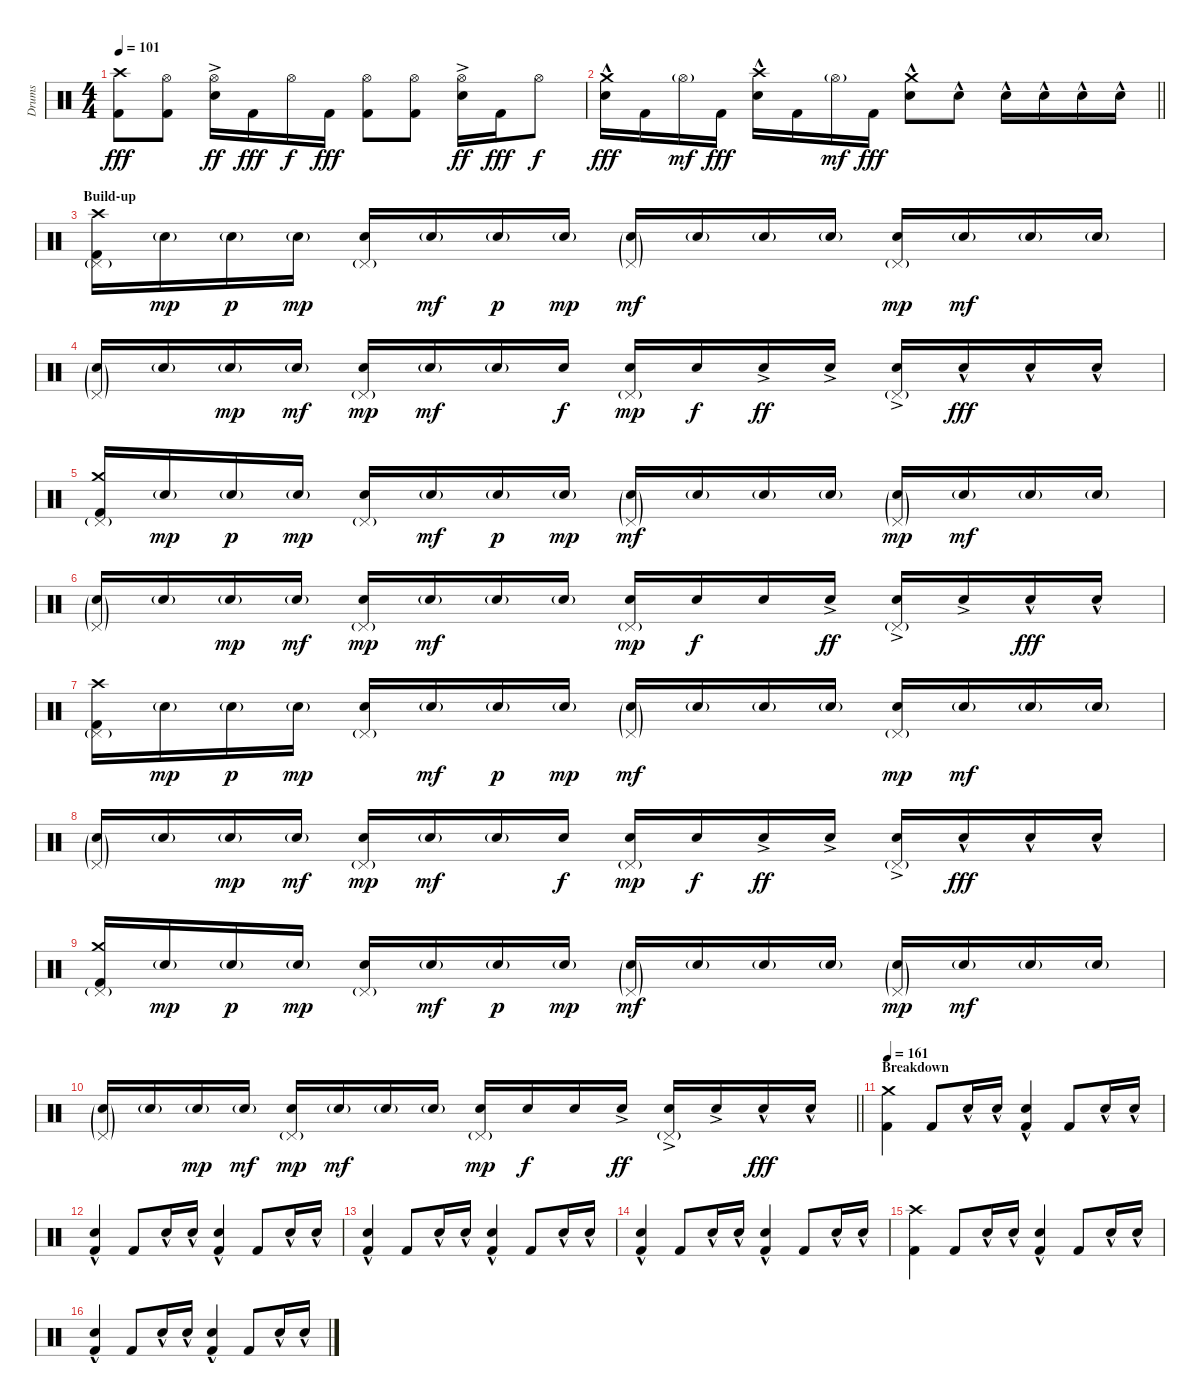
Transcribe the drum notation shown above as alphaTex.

\track ("Drums" "Drums") {instrument percussion}
\staff {score}
\articulation defaults
\ts (4 4)
\tempo 101
\clef neutral
\ks c
("Crash high (hit)" "Kick (hit) 2").8{dy fff} ("Hi-Hat (open)" "Kick (hit) 2").8 ("Hi-Hat (open)" "Snare (hit) 2"{ac}).16{dy ff} "Kick (hit) 2".16{dy fff} "Hi-Hat (open)".16{dy f} "Kick (hit) 2".16{dy fff} ("Hi-Hat (open)" "Kick (hit) 2").8 ("Hi-Hat (open)" "Kick (hit) 2").8 ("Hi-Hat (open)" "Snare (hit) 2"{ac}).16{dy ff} "Kick (hit) 2".16{dy fff} "Hi-Hat (open)".8{dy f} |
\barLineRight lightlight
("Crash medium (hit)" "Snare (hit) 2"{hac}).16{dy fff} "Kick (hit) 2".16 "Hi-Hat (open)"{g}.16{dy mf} "Kick (hit) 2".16{dy fff} ("Crash high (hit)" "Snare (hit) 2"{hac}).16 "Kick (hit) 2".16 "Hi-Hat (open)"{g}.16{dy mf} "Kick (hit) 2".16{dy fff} ("Crash medium (hit)" "Snare (hit) 2"{hac}).8 "Snare (hit) 2"{hac}.8 "Snare (hit) 2"{hac}.16 "Snare (hit) 2"{hac}.16 "Snare (hit) 2"{hac}.16 "Snare (hit) 2"{hac}.16 |
\section ("" "Build-up")
("Crash high (hit)" "Pedal Hi-Hat (hit)"{g} "Kick (hit) 2").16 "Snare (hit) 2"{g}.16{dy mp} "Snare (hit) 2"{g}.16{dy p} "Snare (hit) 2"{g}.16{dy mp} ("Pedal Hi-Hat (hit)"{g} "Snare (hit) 2").16 "Snare (hit) 2"{g}.16{dy mf} "Snare (hit) 2"{g}.16{dy p} "Snare (hit) 2"{g}.16{dy mp} ("Pedal Hi-Hat (hit)"{g} "Snare (hit) 2"{g}).16{dy mf} "Snare (hit) 2"{g}.16 "Snare (hit) 2"{g}.16 "Snare (hit) 2"{g}.16 ("Pedal Hi-Hat (hit)"{g} "Snare (hit) 2").16{dy mp} "Snare (hit) 2"{g}.16{dy mf} "Snare (hit) 2"{g}.16 "Snare (hit) 2"{g}.16 |
("Pedal Hi-Hat (hit)"{g} "Snare (hit) 2"{g}).16 "Snare (hit) 2"{g}.16 "Snare (hit) 2"{g}.16{dy mp} "Snare (hit) 2"{g}.16{dy mf} ("Pedal Hi-Hat (hit)"{g} "Snare (hit) 2").16{dy mp} "Snare (hit) 2"{g}.16{dy mf} "Snare (hit) 2"{g}.16 "Snare (hit) 2".16{dy f} ("Pedal Hi-Hat (hit)"{g} "Snare (hit) 2").16{dy mp} "Snare (hit) 2".16{dy f} "Snare (hit) 2"{ac}.16{dy ff} "Snare (hit) 2"{ac}.16 ("Pedal Hi-Hat (hit)"{g} "Snare (hit) 2"{ac}).16 "Snare (hit) 2"{hac}.16{dy fff} "Snare (hit) 2"{hac}.16 "Snare (hit) 2"{hac}.16 |
("Crash medium (hit)" "Pedal Hi-Hat (hit)"{g} "Kick (hit) 2").16 "Snare (hit) 2"{g}.16{dy mp} "Snare (hit) 2"{g}.16{dy p} "Snare (hit) 2"{g}.16{dy mp} ("Pedal Hi-Hat (hit)"{g} "Snare (hit) 2").16 "Snare (hit) 2"{g}.16{dy mf} "Snare (hit) 2"{g}.16{dy p} "Snare (hit) 2"{g}.16{dy mp} ("Pedal Hi-Hat (hit)"{g} "Snare (hit) 2"{g}).16{dy mf} "Snare (hit) 2"{g}.16 "Snare (hit) 2"{g}.16 "Snare (hit) 2"{g}.16 ("Pedal Hi-Hat (hit)"{g} "Snare (hit) 2"{g}).16{dy mp} "Snare (hit) 2"{g}.16{dy mf} "Snare (hit) 2"{g}.16 "Snare (hit) 2"{g}.16 |
("Pedal Hi-Hat (hit)"{g} "Snare (hit) 2"{g}).16 "Snare (hit) 2"{g}.16 "Snare (hit) 2"{g}.16{dy mp} "Snare (hit) 2"{g}.16{dy mf} ("Pedal Hi-Hat (hit)"{g} "Snare (hit) 2").16{dy mp} "Snare (hit) 2"{g}.16{dy mf} "Snare (hit) 2"{g}.16 "Snare (hit) 2"{g}.16 ("Pedal Hi-Hat (hit)"{g} "Snare (hit) 2").16{dy mp} "Snare (hit) 2".16{dy f} "Snare (hit) 2".16 "Snare (hit) 2"{ac}.16{dy ff} ("Pedal Hi-Hat (hit)"{g} "Snare (hit) 2"{ac}).16 "Snare (hit) 2"{ac}.16 "Snare (hit) 2"{hac}.16{dy fff} "Snare (hit) 2"{hac}.16 |
("Crash high (hit)" "Pedal Hi-Hat (hit)"{g} "Kick (hit) 2").16 "Snare (hit) 2"{g}.16{dy mp} "Snare (hit) 2"{g}.16{dy p} "Snare (hit) 2"{g}.16{dy mp} ("Pedal Hi-Hat (hit)"{g} "Snare (hit) 2").16 "Snare (hit) 2"{g}.16{dy mf} "Snare (hit) 2"{g}.16{dy p} "Snare (hit) 2"{g}.16{dy mp} ("Pedal Hi-Hat (hit)"{g} "Snare (hit) 2"{g}).16{dy mf} "Snare (hit) 2"{g}.16 "Snare (hit) 2"{g}.16 "Snare (hit) 2"{g}.16 ("Pedal Hi-Hat (hit)"{g} "Snare (hit) 2").16{dy mp} "Snare (hit) 2"{g}.16{dy mf} "Snare (hit) 2"{g}.16 "Snare (hit) 2"{g}.16 |
("Pedal Hi-Hat (hit)"{g} "Snare (hit) 2"{g}).16 "Snare (hit) 2"{g}.16 "Snare (hit) 2"{g}.16{dy mp} "Snare (hit) 2"{g}.16{dy mf} ("Pedal Hi-Hat (hit)"{g} "Snare (hit) 2").16{dy mp} "Snare (hit) 2"{g}.16{dy mf} "Snare (hit) 2"{g}.16 "Snare (hit) 2".16{dy f} ("Pedal Hi-Hat (hit)"{g} "Snare (hit) 2").16{dy mp} "Snare (hit) 2".16{dy f} "Snare (hit) 2"{ac}.16{dy ff} "Snare (hit) 2"{ac}.16 ("Pedal Hi-Hat (hit)"{g} "Snare (hit) 2"{ac}).16 "Snare (hit) 2"{hac}.16{dy fff} "Snare (hit) 2"{hac}.16 "Snare (hit) 2"{hac}.16 |
("Crash medium (hit)" "Pedal Hi-Hat (hit)"{g} "Kick (hit) 2").16 "Snare (hit) 2"{g}.16{dy mp} "Snare (hit) 2"{g}.16{dy p} "Snare (hit) 2"{g}.16{dy mp} ("Pedal Hi-Hat (hit)"{g} "Snare (hit) 2").16 "Snare (hit) 2"{g}.16{dy mf} "Snare (hit) 2"{g}.16{dy p} "Snare (hit) 2"{g}.16{dy mp} ("Pedal Hi-Hat (hit)"{g} "Snare (hit) 2"{g}).16{dy mf} "Snare (hit) 2"{g}.16 "Snare (hit) 2"{g}.16 "Snare (hit) 2"{g}.16 ("Pedal Hi-Hat (hit)"{g} "Snare (hit) 2"{g}).16{dy mp} "Snare (hit) 2"{g}.16{dy mf} "Snare (hit) 2"{g}.16 "Snare (hit) 2"{g}.16 |
\barLineRight lightlight
("Pedal Hi-Hat (hit)"{g} "Snare (hit) 2"{g}).16 "Snare (hit) 2"{g}.16 "Snare (hit) 2"{g}.16{dy mp} "Snare (hit) 2"{g}.16{dy mf} ("Pedal Hi-Hat (hit)"{g} "Snare (hit) 2").16{dy mp} "Snare (hit) 2"{g}.16{dy mf} "Snare (hit) 2"{g}.16 "Snare (hit) 2"{g}.16 ("Pedal Hi-Hat (hit)"{g} "Snare (hit) 2").16{dy mp} "Snare (hit) 2".16{dy f} "Snare (hit) 2".16 "Snare (hit) 2"{ac}.16{dy ff} ("Pedal Hi-Hat (hit)"{g} "Snare (hit) 2"{ac}).16 "Snare (hit) 2"{ac}.16 "Snare (hit) 2"{hac}.16{dy fff} "Snare (hit) 2"{hac}.16 |
\section ("" "Breakdown")
\tempo 161
("Crash medium (hit)" "Kick (hit) 2").4 "Kick (hit) 2".8 "Snare (hit) 2"{hac}.16 "Snare (hit) 2"{hac}.16 ("Snare (hit) 2"{hac} "Kick (hit) 2").4 "Kick (hit) 2".8 "Snare (hit) 2"{hac}.16 "Snare (hit) 2"{hac}.16 |
("Snare (hit) 2"{hac} "Kick (hit) 2").4 "Kick (hit) 2".8 "Snare (hit) 2"{hac}.16 "Snare (hit) 2"{hac}.16 ("Snare (hit) 2"{hac} "Kick (hit) 2").4 "Kick (hit) 2".8 "Snare (hit) 2"{hac}.16 "Snare (hit) 2"{hac}.16 |
("Snare (hit) 2"{hac} "Kick (hit) 2").4 "Kick (hit) 2".8 "Snare (hit) 2"{hac}.16 "Snare (hit) 2"{hac}.16 ("Snare (hit) 2"{hac} "Kick (hit) 2").4 "Kick (hit) 2".8 "Snare (hit) 2"{hac}.16 "Snare (hit) 2"{hac}.16 |
("Snare (hit) 2"{hac} "Kick (hit) 2").4 "Kick (hit) 2".8 "Snare (hit) 2"{hac}.16 "Snare (hit) 2"{hac}.16 ("Snare (hit) 2"{hac} "Kick (hit) 2").4 "Kick (hit) 2".8 "Snare (hit) 2"{hac}.16 "Snare (hit) 2"{hac}.16 |
("Crash high (hit)" "Kick (hit) 2").4 "Kick (hit) 2".8 "Snare (hit) 2"{hac}.16 "Snare (hit) 2"{hac}.16 ("Snare (hit) 2"{hac} "Kick (hit) 2").4 "Kick (hit) 2".8 "Snare (hit) 2"{hac}.16 "Snare (hit) 2"{hac}.16 |
("Snare (hit) 2"{hac} "Kick (hit) 2").4 "Kick (hit) 2".8 "Snare (hit) 2"{hac}.16 "Snare (hit) 2"{hac}.16 ("Snare (hit) 2"{hac} "Kick (hit) 2").4 "Kick (hit) 2".8 "Snare (hit) 2"{hac}.16 "Snare (hit) 2"{hac}.16
